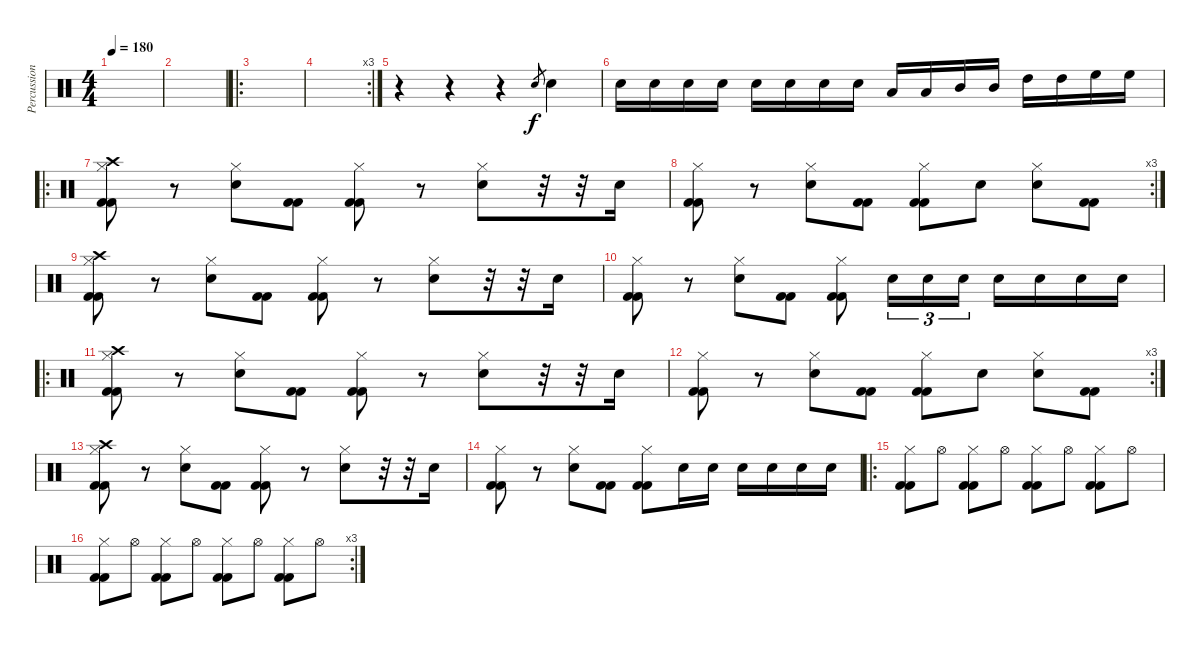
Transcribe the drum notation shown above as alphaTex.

\track ("Percussion" "Percussion") {instrument percussion}
\staff {score}
\articulation defaults
\ts (4 4)
\tempo 180
\clef neutral
\ks c
|
|
\ro
|
\rc 3
|
r.4 r.4 r.4 "Snare (hit) 2".8{gr} "Snare (hit) 2".4 |
"Snare (hit) 2".16 "Snare (hit) 2".16 "Snare (hit) 2".16 "Snare (hit) 2".16 "Snare (hit) 2".16 "Snare (hit) 2".16 "Snare (hit) 2".16 "Snare (hit) 2".16 "Low Tom (hit)".16 "Low Tom (hit)".16 "Mid Tom (hit)".16 "Mid Tom (hit)".16 "High Tom (hit)".16 "High Tom (hit)".16 "High Floor Tom (hit)".16 "High Floor Tom (hit)".16 |
\ro
("Hi-Hat (closed)" "Crash high (hit)" "Kick (hit) 2" "Kick (hit) 2").8 r.8 ("Hi-Hat (closed)" "Snare (hit) 2").8 ("Kick (hit) 2" "Kick (hit) 2").8 ("Hi-Hat (closed)" "Kick (hit) 2" "Kick (hit) 2").8 r.8 ("Hi-Hat (closed)" "Snare (hit) 2").8 r.32 r.32 "Snare (hit) 2".16 |
\rc 3
("Hi-Hat (closed)" "Kick (hit) 2" "Kick (hit) 2").8 r.8 ("Hi-Hat (closed)" "Snare (hit) 2").8 ("Kick (hit) 2" "Kick (hit) 2").8 ("Hi-Hat (closed)" "Kick (hit) 2" "Kick (hit) 2").8 "Snare (hit) 2".8 ("Hi-Hat (closed)" "Snare (hit) 2").8 ("Kick (hit) 2" "Kick (hit) 2").8 |
("Hi-Hat (closed)" "Crash high (hit)" "Kick (hit) 2" "Kick (hit) 2").8 r.8 ("Hi-Hat (closed)" "Snare (hit) 2").8 ("Kick (hit) 2" "Kick (hit) 2").8 ("Hi-Hat (closed)" "Kick (hit) 2" "Kick (hit) 2").8 r.8 ("Hi-Hat (closed)" "Snare (hit) 2").8 r.32 r.32 "Snare (hit) 2".16 |
("Hi-Hat (closed)" "Kick (hit) 2" "Kick (hit) 2").8 r.8 ("Hi-Hat (closed)" "Snare (hit) 2").8 ("Kick (hit) 2" "Kick (hit) 2").8 ("Hi-Hat (closed)" "Kick (hit) 2" "Kick (hit) 2").8 "Electric Snare (hit)".16{tu (3 2)} "Electric Snare (hit)".16{tu (3 2)} "Electric Snare (hit)".16{tu (3 2)} "Electric Snare (hit)".16 "Electric Snare (hit)".16 "Electric Snare (hit)".16 "Electric Snare (hit)".16 |
\ro
("Hi-Hat (closed)" "Crash high (hit)" "Kick (hit) 2" "Kick (hit) 2").8 r.8 ("Hi-Hat (closed)" "Snare (hit) 2").8 ("Kick (hit) 2" "Kick (hit) 2").8 ("Hi-Hat (closed)" "Kick (hit) 2" "Kick (hit) 2").8 r.8 ("Hi-Hat (closed)" "Snare (hit) 2").8 r.32 r.32 "Snare (hit) 2".16 |
\rc 3
("Hi-Hat (closed)" "Kick (hit) 2" "Kick (hit) 2").8 r.8 ("Hi-Hat (closed)" "Snare (hit) 2").8 ("Kick (hit) 2" "Kick (hit) 2").8 ("Hi-Hat (closed)" "Kick (hit) 2" "Kick (hit) 2").8 "Snare (hit) 2".8 ("Hi-Hat (closed)" "Snare (hit) 2").8 ("Kick (hit) 2" "Kick (hit) 2").8 |
("Hi-Hat (closed)" "Crash high (hit)" "Kick (hit) 2" "Kick (hit) 2").8 r.8 ("Hi-Hat (closed)" "Snare (hit) 2").8 ("Kick (hit) 2" "Kick (hit) 2").8 ("Hi-Hat (closed)" "Kick (hit) 2" "Kick (hit) 2").8 r.8 ("Hi-Hat (closed)" "Snare (hit) 2").8 r.32 r.32 "Snare (hit) 2".16 |
("Hi-Hat (closed)" "Kick (hit) 2" "Kick (hit) 2").8 r.8 ("Hi-Hat (closed)" "Snare (hit) 2").8 ("Kick (hit) 2" "Kick (hit) 2").8 ("Hi-Hat (closed)" "Kick (hit) 2" "Kick (hit) 2").8 "Electric Snare (hit)".16 "Electric Snare (hit)".16 "Electric Snare (hit)".16 "Electric Snare (hit)".16 "Electric Snare (hit)".16 "Electric Snare (hit)".16 |
\ro
("Hi-Hat (closed)" "Kick (hit) 2" "Kick (hit) 2").8 "Hi-Hat (open)".8 ("Hi-Hat (closed)" "Kick (hit) 2" "Kick (hit) 2").8 "Hi-Hat (open)".8 ("Hi-Hat (closed)" "Kick (hit) 2" "Kick (hit) 2").8 "Hi-Hat (open)".8 ("Hi-Hat (closed)" "Kick (hit) 2" "Kick (hit) 2").8 "Hi-Hat (open)".8 |
\rc 3
("Hi-Hat (closed)" "Kick (hit) 2" "Kick (hit) 2").8 "Hi-Hat (open)".8 ("Hi-Hat (closed)" "Kick (hit) 2" "Kick (hit) 2").8 "Hi-Hat (open)".8 ("Hi-Hat (closed)" "Kick (hit) 2" "Kick (hit) 2").8 "Hi-Hat (open)".8 ("Hi-Hat (closed)" "Kick (hit) 2" "Kick (hit) 2").8 "Hi-Hat (open)".8
